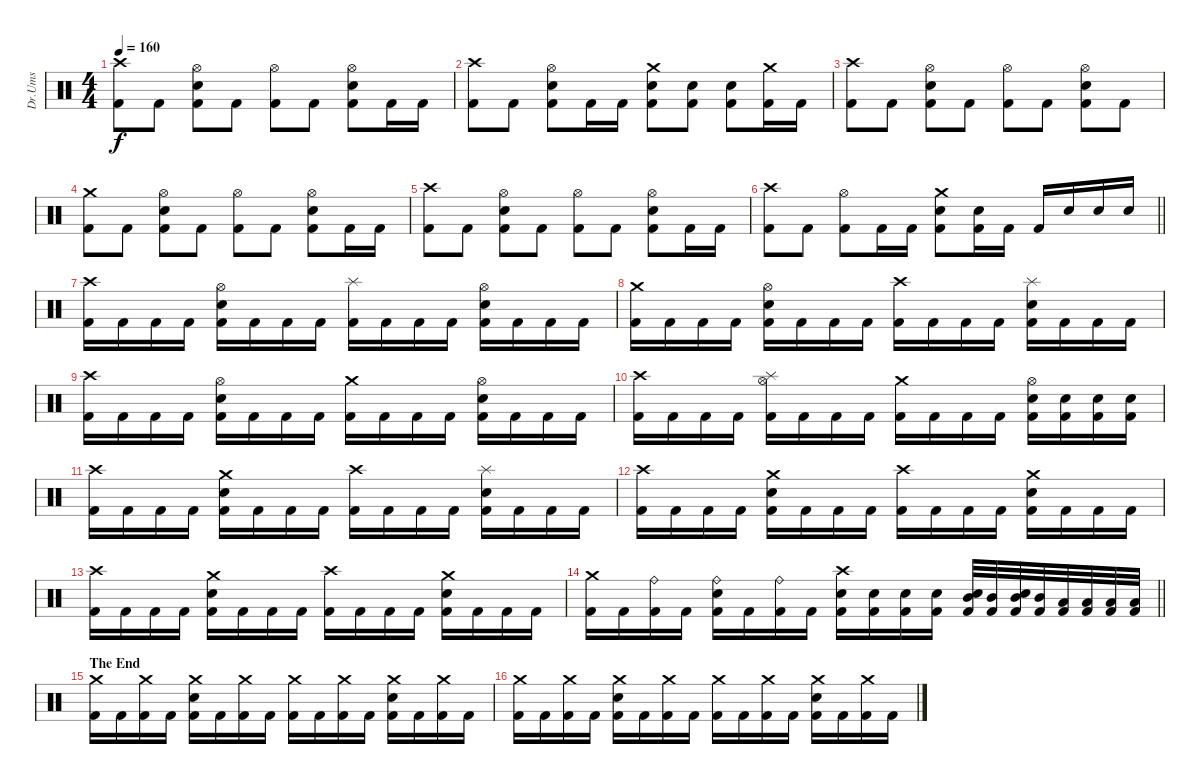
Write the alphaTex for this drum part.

\track ("Dr.Ums" "Dr.Ums") {instrument percussion}
\staff {score}
\articulation defaults
\ts (4 4)
\tempo 160
\clef neutral
\ks c
("Crash high (hit)" "Kick (hit) 2").8{dy f} "Kick (hit) 2".8 ("Snare (hit) 2" "Kick (hit) 2" "Hi-Hat (open)").8 "Kick (hit) 2".8 ("Kick (hit) 2" "Hi-Hat (open)").8 "Kick (hit) 2".8 ("Kick (hit) 2" "Snare (hit) 2" "Hi-Hat (open)").8 "Kick (hit) 2".16 "Kick (hit) 2".16 |
("Crash high (hit)" "Kick (hit) 2").8 "Kick (hit) 2".8 ("Hi-Hat (open)" "Kick (hit) 2" "Snare (hit) 2").8 "Kick (hit) 2".16 "Kick (hit) 2".16 ("Snare (hit) 2" "Kick (hit) 2" "Crash medium (hit)").8 ("Snare (hit) 2" "Kick (hit) 2").8 ("Kick (hit) 2" "Snare (hit) 2").8 ("Kick (hit) 2" "Crash medium (hit)").16 "Kick (hit) 2".16 |
("Crash high (hit)" "Kick (hit) 2").8 "Kick (hit) 2".8 ("Snare (hit) 2" "Kick (hit) 2" "Hi-Hat (open)").8 "Kick (hit) 2".8 ("Kick (hit) 2" "Hi-Hat (open)").8 "Kick (hit) 2".8 ("Kick (hit) 2" "Snare (hit) 2" "Hi-Hat (open)").8 "Kick (hit) 2".8 |
("Crash medium (hit)" "Kick (hit) 2").8 "Kick (hit) 2".8 ("Snare (hit) 2" "Kick (hit) 2" "Hi-Hat (open)").8 "Kick (hit) 2".8 ("Kick (hit) 2" "Hi-Hat (open)").8 "Kick (hit) 2".8 ("Kick (hit) 2" "Snare (hit) 2" "Hi-Hat (open)").8 "Kick (hit) 2".16 "Kick (hit) 2".16 |
("Crash high (hit)" "Kick (hit) 2").8 "Kick (hit) 2".8 ("Snare (hit) 2" "Kick (hit) 2" "Hi-Hat (open)").8 "Kick (hit) 2".8 ("Kick (hit) 2" "Hi-Hat (open)").8 "Kick (hit) 2".8 ("Kick (hit) 2" "Snare (hit) 2" "Hi-Hat (open)").8 "Kick (hit) 2".16 "Kick (hit) 2".16 |
\barLineRight lightlight
("Crash high (hit)" "Kick (hit) 2").8 "Kick (hit) 2".8 ("Hi-Hat (open)" "Kick (hit) 2").8 "Kick (hit) 2".16 "Kick (hit) 2".16 ("Snare (hit) 2" "Kick (hit) 2" "Crash medium (hit)").8 ("Snare (hit) 2" "Kick (hit) 2").16 "Kick (hit) 2".16 "Kick (hit) 2".16 "Snare (hit) 2".16 "Snare (hit) 2".16 "Snare (hit) 2".16 |
("Crash high (hit)" "Kick (hit) 2").16 "Kick (hit) 2".16 "Kick (hit) 2".16 "Kick (hit) 2".16 ("Snare (hit) 2" "Kick (hit) 2" "Hi-Hat (open)").16 "Kick (hit) 2".16 "Kick (hit) 2".16 "Kick (hit) 2".16 ("Splash (hit)" "Kick (hit) 2").16 "Kick (hit) 2".16 "Kick (hit) 2".16 "Kick (hit) 2".16 ("Snare (hit) 2" "Kick (hit) 2" "Hi-Hat (open)").16 "Kick (hit) 2".16 "Kick (hit) 2".16 "Kick (hit) 2".16 |
("Crash medium (hit)" "Kick (hit) 2").16 "Kick (hit) 2".16 "Kick (hit) 2".16 "Kick (hit) 2".16 ("Snare (hit) 2" "Kick (hit) 2" "Hi-Hat (open)").16 "Kick (hit) 2".16 "Kick (hit) 2".16 "Kick (hit) 2".16 ("Crash high (hit)" "Kick (hit) 2").16 "Kick (hit) 2".16 "Kick (hit) 2".16 "Kick (hit) 2".16 ("Snare (hit) 2" "Kick (hit) 2" "Splash (hit)").16 "Kick (hit) 2".16 "Kick (hit) 2".16 "Kick (hit) 2".16 |
("Crash high (hit)" "Kick (hit) 2").16 "Kick (hit) 2".16 "Kick (hit) 2".16 "Kick (hit) 2".16 ("Snare (hit) 2" "Kick (hit) 2" "Hi-Hat (open)").16 "Kick (hit) 2".16 "Kick (hit) 2".16 "Kick (hit) 2".16 ("Crash medium (hit)" "Kick (hit) 2").16 "Kick (hit) 2".16 "Kick (hit) 2".16 "Kick (hit) 2".16 ("Snare (hit) 2" "Kick (hit) 2" "Hi-Hat (open)").16 "Kick (hit) 2".16 "Kick (hit) 2".16 "Kick (hit) 2".16 |
("Crash high (hit)" "Kick (hit) 2").16 "Kick (hit) 2".16 "Kick (hit) 2".16 "Kick (hit) 2".16 ("Splash (hit)" "Kick (hit) 2" "Hi-Hat (open)").16 "Kick (hit) 2".16 "Kick (hit) 2".16 "Kick (hit) 2".16 ("Crash medium (hit)" "Kick (hit) 2").16 "Kick (hit) 2".16 "Kick (hit) 2".16 "Kick (hit) 2".16 ("Snare (hit) 2" "Kick (hit) 2" "Hi-Hat (open)").16 ("Snare (hit) 2" "Kick (hit) 2").16 ("Snare (hit) 2" "Kick (hit) 2").16 ("Snare (hit) 2" "Kick (hit) 2").16 |
("Crash high (hit)" "Kick (hit) 2").16 "Kick (hit) 2".16 "Kick (hit) 2".16 "Kick (hit) 2".16 ("Snare (hit) 2" "Kick (hit) 2" "Crash medium (hit)").16 "Kick (hit) 2".16 "Kick (hit) 2".16 "Kick (hit) 2".16 ("Crash high (hit)" "Kick (hit) 2").16 "Kick (hit) 2".16 "Kick (hit) 2".16 "Kick (hit) 2".16 ("Snare (hit) 2" "Kick (hit) 2" "Splash (hit)").16 "Kick (hit) 2".16 "Kick (hit) 2".16 "Kick (hit) 2".16 |
("Crash high (hit)" "Kick (hit) 2").16 "Kick (hit) 2".16 "Kick (hit) 2".16 "Kick (hit) 2".16 ("Snare (hit) 2" "Kick (hit) 2" "Crash medium (hit)").16 "Kick (hit) 2".16 "Kick (hit) 2".16 "Kick (hit) 2".16 ("Crash high (hit)" "Kick (hit) 2").16 "Kick (hit) 2".16 "Kick (hit) 2".16 "Kick (hit) 2".16 ("Snare (hit) 2" "Kick (hit) 2" "Crash medium (hit)").16 "Kick (hit) 2".16 "Kick (hit) 2".16 "Kick (hit) 2".16 |
("Crash high (hit)" "Kick (hit) 2").16 "Kick (hit) 2".16 "Kick (hit) 2".16 "Kick (hit) 2".16 ("Snare (hit) 2" "Kick (hit) 2" "Crash medium (hit)").16 "Kick (hit) 2".16 "Kick (hit) 2".16 "Kick (hit) 2".16 ("Crash high (hit)" "Kick (hit) 2").16 "Kick (hit) 2".16 "Kick (hit) 2".16 "Kick (hit) 2".16 ("Snare (hit) 2" "Kick (hit) 2" "Crash medium (hit)").16 "Kick (hit) 2".16 "Kick (hit) 2".16 "Kick (hit) 2".16 |
\barLineRight lightlight
("Crash medium (hit)" "Kick (hit) 2").16 "Kick (hit) 2".16 ("Ride (bell)" "Kick (hit) 2").16 "Kick (hit) 2".16 ("Snare (hit) 2" "Kick (hit) 2" "Ride (bell)").16 "Kick (hit) 2".16 ("Ride (bell)" "Kick (hit) 2").16 "Kick (hit) 2".16 ("Crash high (hit)" "Kick (hit) 2" "Snare (hit) 2").16 ("Kick (hit) 2" "Snare (hit) 2").16 ("Kick (hit) 2" "Snare (hit) 2").16 ("Kick (hit) 2" "Snare (hit) 2").16 ("Snare (hit) 2" "Kick (hit) 2" "Mid Tom (hit)").32 ("Kick (hit) 2" "Mid Tom (hit)").32 ("Snare (hit) 2" "Kick (hit) 2" "Mid Tom (hit)").32 ("Kick (hit) 2" "Mid Tom (hit)").32 ("Kick (hit) 2" "Low Tom (hit)").32 ("Kick (hit) 2" "Low Tom (hit)").32 ("Kick (hit) 2" "Low Tom (hit)").32 ("Kick (hit) 2" "Low Tom (hit)").32 |
\section ("" "The End")
("Kick (hit) 2" "Crash medium (hit)").16 "Kick (hit) 2".16 ("Kick (hit) 2" "Crash medium (hit)").16 "Kick (hit) 2".16 ("Kick (hit) 2" "Crash medium (hit)" "Snare (hit) 2").16 "Kick (hit) 2".16 ("Kick (hit) 2" "Crash medium (hit)").16 "Kick (hit) 2".16 ("Kick (hit) 2" "Crash medium (hit)").16 "Kick (hit) 2".16 ("Kick (hit) 2" "Crash medium (hit)").16 "Kick (hit) 2".16 ("Kick (hit) 2" "Crash medium (hit)" "Snare (hit) 2").16 "Kick (hit) 2".16 ("Kick (hit) 2" "Crash medium (hit)").16 "Kick (hit) 2".16 |
("Kick (hit) 2" "Crash medium (hit)").16 "Kick (hit) 2".16 ("Kick (hit) 2" "Crash medium (hit)").16 "Kick (hit) 2".16 ("Kick (hit) 2" "Crash medium (hit)" "Snare (hit) 2").16 "Kick (hit) 2".16 ("Kick (hit) 2" "Crash medium (hit)").16 "Kick (hit) 2".16 ("Kick (hit) 2" "Crash medium (hit)").16 "Kick (hit) 2".16 ("Kick (hit) 2" "Crash medium (hit)").16 "Kick (hit) 2".16 ("Kick (hit) 2" "Crash medium (hit)" "Snare (hit) 2").16 "Kick (hit) 2".16 ("Kick (hit) 2" "Crash medium (hit)").16 "Kick (hit) 2".16
